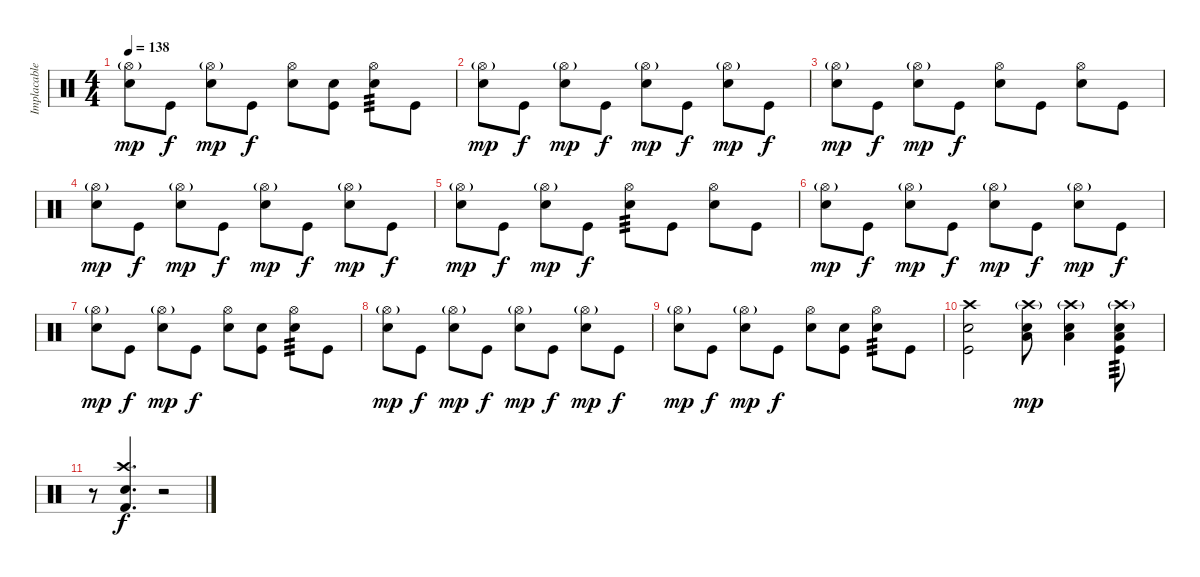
\track ("Implacable Gonzalez" "Implacable") {instrument percussion}
\staff {score}
\articulation defaults
\ts (4 4)
\tempo 138
\clef neutral
\ks c
("Hi-Hat (open)"{g} "Snare (hit) 2").8{dy mp} "Kick (hit)".8{dy f} ("Hi-Hat (open)"{g} "Snare (hit) 2").8{dy mp} "Kick (hit)".8{dy f} ("Hi-Hat (open)" "Snare (hit) 2").8 ("Snare (hit) 2" "Kick (hit)").8 ("Hi-Hat (open)" "Snare (hit) 2").8{tp 3} "Kick (hit)".8 |
("Hi-Hat (open)"{g} "Snare (hit) 2").8{dy mp} "Kick (hit)".8{dy f} ("Hi-Hat (open)"{g} "Snare (hit) 2").8{dy mp} "Kick (hit)".8{dy f} ("Hi-Hat (open)"{g} "Snare (hit) 2").8{dy mp} "Kick (hit)".8{dy f} ("Hi-Hat (open)"{g} "Snare (hit) 2").8{dy mp} "Kick (hit)".8{dy f} |
("Hi-Hat (open)"{g} "Snare (hit) 2").8{dy mp} "Kick (hit)".8{dy f} ("Hi-Hat (open)"{g} "Snare (hit) 2").8{dy mp} "Kick (hit)".8{dy f} ("Hi-Hat (open)" "Snare (hit) 2").8 "Kick (hit)".8 ("Hi-Hat (open)" "Snare (hit) 2").8 "Kick (hit)".8 |
("Hi-Hat (open)"{g} "Snare (hit) 2").8{dy mp} "Kick (hit)".8{dy f} ("Hi-Hat (open)"{g} "Snare (hit) 2").8{dy mp} "Kick (hit)".8{dy f} ("Hi-Hat (open)"{g} "Snare (hit) 2").8{dy mp} "Kick (hit)".8{dy f} ("Hi-Hat (open)"{g} "Snare (hit) 2").8{dy mp} "Kick (hit)".8{dy f} |
("Hi-Hat (open)"{g} "Snare (hit) 2").8{dy mp} "Kick (hit)".8{dy f} ("Hi-Hat (open)"{g} "Snare (hit) 2").8{dy mp} "Kick (hit)".8{dy f} ("Hi-Hat (open)" "Snare (hit) 2").8{tp 3} "Kick (hit)".8 ("Hi-Hat (open)" "Snare (hit) 2").8 "Kick (hit)".8 |
("Hi-Hat (open)"{g} "Snare (hit) 2").8{dy mp} "Kick (hit)".8{dy f} ("Hi-Hat (open)"{g} "Snare (hit) 2").8{dy mp} "Kick (hit)".8{dy f} ("Hi-Hat (open)"{g} "Snare (hit) 2").8{dy mp} "Kick (hit)".8{dy f} ("Hi-Hat (open)"{g} "Snare (hit) 2").8{dy mp} "Kick (hit)".8{dy f} |
("Hi-Hat (open)"{g} "Snare (hit) 2").8{dy mp} "Kick (hit)".8{dy f} ("Hi-Hat (open)"{g} "Snare (hit) 2").8{dy mp} "Kick (hit)".8{dy f} ("Hi-Hat (open)" "Snare (hit) 2").8 ("Snare (hit) 2" "Kick (hit)").8 ("Hi-Hat (open)" "Snare (hit) 2").8{tp 3} "Kick (hit)".8 |
("Hi-Hat (open)"{g} "Snare (hit) 2").8{dy mp} "Kick (hit)".8{dy f} ("Hi-Hat (open)"{g} "Snare (hit) 2").8{dy mp} "Kick (hit)".8{dy f} ("Hi-Hat (open)"{g} "Snare (hit) 2").8{dy mp} "Kick (hit)".8{dy f} ("Hi-Hat (open)"{g} "Snare (hit) 2").8{dy mp} "Kick (hit)".8{dy f} |
("Hi-Hat (open)"{g} "Snare (hit) 2").8{dy mp} "Kick (hit)".8{dy f} ("Hi-Hat (open)"{g} "Snare (hit) 2").8{dy mp} "Kick (hit)".8{dy f} ("Hi-Hat (open)" "Snare (hit) 2").8 ("Snare (hit) 2" "Kick (hit)").8 ("Hi-Hat (open)" "Snare (hit) 2").8{tp 3} "Kick (hit)".8 |
("Crash high (hit)" "Snare (hit) 2" "Kick (hit)").2 ("Crash high (hit)"{g} "Snare (hit) 2" "Low Floor Tom (hit)").8{dy mp} ("Crash high (hit)"{g} "Snare (hit) 2" "Low Floor Tom (hit)").4 ("Crash high (hit)"{g} "Snare (hit) 2" "Low Tom (hit)" "Kick (hit)").8{tp 3} |
r.8 ("Crash high (hit)" "Snare (hit) 2" "Kick (hit) 2").4{d dy f} r.2
